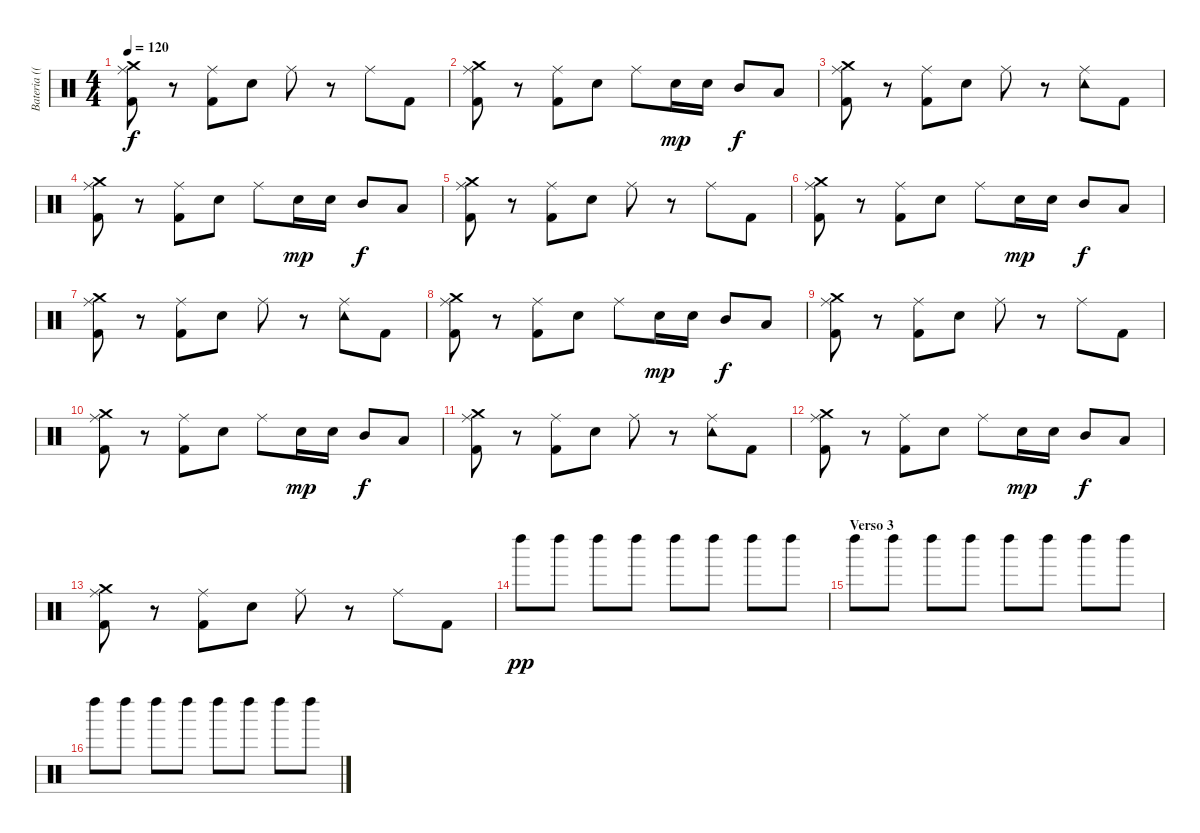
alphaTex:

\track ("Bateria ((Matt))" "Bateria ((") {instrument percussion}
\staff {score}
\articulation defaults
\ts (4 4)
\tempo 120
\clef neutral
\ks c
("Ride (middle)" "Crash medium (hit)" "Kick (hit) 2").8{dy f} r.8 ("Ride (middle)" "Kick (hit) 2").8 "Electric Snare (hit)".8 "Ride (middle)".8 r.8 "Ride (middle)".8 "Kick (hit) 2".8 |
("Ride (middle)" "Crash medium (hit)" "Kick (hit) 2").8 r.8 ("Ride (middle)" "Kick (hit) 2").8 "Electric Snare (hit)".8 "Ride (middle)".8 "Electric Snare (hit)".16{dy mp} "Electric Snare (hit)".16 "Mid Tom (hit)".8{dy f} "Low Tom (hit)".8 |
("Ride (middle)" "Crash medium (hit)" "Kick (hit) 2").8 r.8 ("Ride (middle)" "Kick (hit) 2").8 "Electric Snare (hit)".8 "Ride (middle)".8 r.8 ("Ride (middle)" "Tambourine (hit)").8 "Kick (hit) 2".8 |
("Ride (middle)" "Crash medium (hit)" "Kick (hit) 2").8 r.8 ("Ride (middle)" "Kick (hit) 2").8 "Electric Snare (hit)".8 "Ride (middle)".8 "Electric Snare (hit)".16{dy mp} "Electric Snare (hit)".16 "Mid Tom (hit)".8{dy f} "Low Tom (hit)".8 |
("Ride (middle)" "Crash medium (hit)" "Kick (hit) 2").8 r.8 ("Ride (middle)" "Kick (hit) 2").8 "Electric Snare (hit)".8 "Ride (middle)".8 r.8 "Ride (middle)".8 "Kick (hit) 2".8 |
("Ride (middle)" "Crash medium (hit)" "Kick (hit) 2").8 r.8 ("Ride (middle)" "Kick (hit) 2").8 "Electric Snare (hit)".8 "Ride (middle)".8 "Electric Snare (hit)".16{dy mp} "Electric Snare (hit)".16 "Mid Tom (hit)".8{dy f} "Low Tom (hit)".8 |
("Ride (middle)" "Crash medium (hit)" "Kick (hit) 2").8 r.8 ("Ride (middle)" "Kick (hit) 2").8 "Electric Snare (hit)".8 "Ride (middle)".8 r.8 ("Ride (middle)" "Tambourine (hit)").8 "Kick (hit) 2".8 |
("Ride (middle)" "Crash medium (hit)" "Kick (hit) 2").8 r.8 ("Ride (middle)" "Kick (hit) 2").8 "Electric Snare (hit)".8 "Ride (middle)".8 "Electric Snare (hit)".16{dy mp} "Electric Snare (hit)".16 "Mid Tom (hit)".8{dy f} "Low Tom (hit)".8 |
("Ride (middle)" "Crash medium (hit)" "Kick (hit) 2").8 r.8 ("Ride (middle)" "Kick (hit) 2").8 "Electric Snare (hit)".8 "Ride (middle)".8 r.8 "Ride (middle)".8 "Kick (hit) 2".8 |
("Ride (middle)" "Crash medium (hit)" "Kick (hit) 2").8 r.8 ("Ride (middle)" "Kick (hit) 2").8 "Electric Snare (hit)".8 "Ride (middle)".8 "Electric Snare (hit)".16{dy mp} "Electric Snare (hit)".16 "Mid Tom (hit)".8{dy f} "Low Tom (hit)".8 |
("Ride (middle)" "Crash medium (hit)" "Kick (hit) 2").8 r.8 ("Ride (middle)" "Kick (hit) 2").8 "Electric Snare (hit)".8 "Ride (middle)".8 r.8 ("Ride (middle)" "Tambourine (hit)").8 "Kick (hit) 2".8 |
("Ride (middle)" "Crash medium (hit)" "Kick (hit) 2").8 r.8 ("Ride (middle)" "Kick (hit) 2").8 "Electric Snare (hit)".8 "Ride (middle)".8 "Electric Snare (hit)".16{dy mp} "Electric Snare (hit)".16 "Mid Tom (hit)".8{dy f} "Low Tom (hit)".8 |
("Ride (middle)" "Crash medium (hit)" "Kick (hit) 2").8 r.8 ("Ride (middle)" "Kick (hit) 2").8 "Electric Snare (hit)".8 "Ride (middle)".8 r.8 "Ride (middle)".8 "Kick (hit) 2".8 |
"Left Maraca (hit)".8{dy pp} "Left Maraca (hit)".8 "Left Maraca (hit)".8 "Left Maraca (hit)".8 "Left Maraca (hit)".8 "Left Maraca (hit)".8 "Left Maraca (hit)".8 "Left Maraca (hit)".8 |
\section ("" "Verso 3")
"Left Maraca (hit)".8 "Left Maraca (hit)".8 "Left Maraca (hit)".8 "Left Maraca (hit)".8 "Left Maraca (hit)".8 "Left Maraca (hit)".8 "Left Maraca (hit)".8 "Left Maraca (hit)".8 |
"Left Maraca (hit)".8 "Left Maraca (hit)".8 "Left Maraca (hit)".8 "Left Maraca (hit)".8 "Left Maraca (hit)".8 "Left Maraca (hit)".8 "Left Maraca (hit)".8 "Left Maraca (hit)".8
